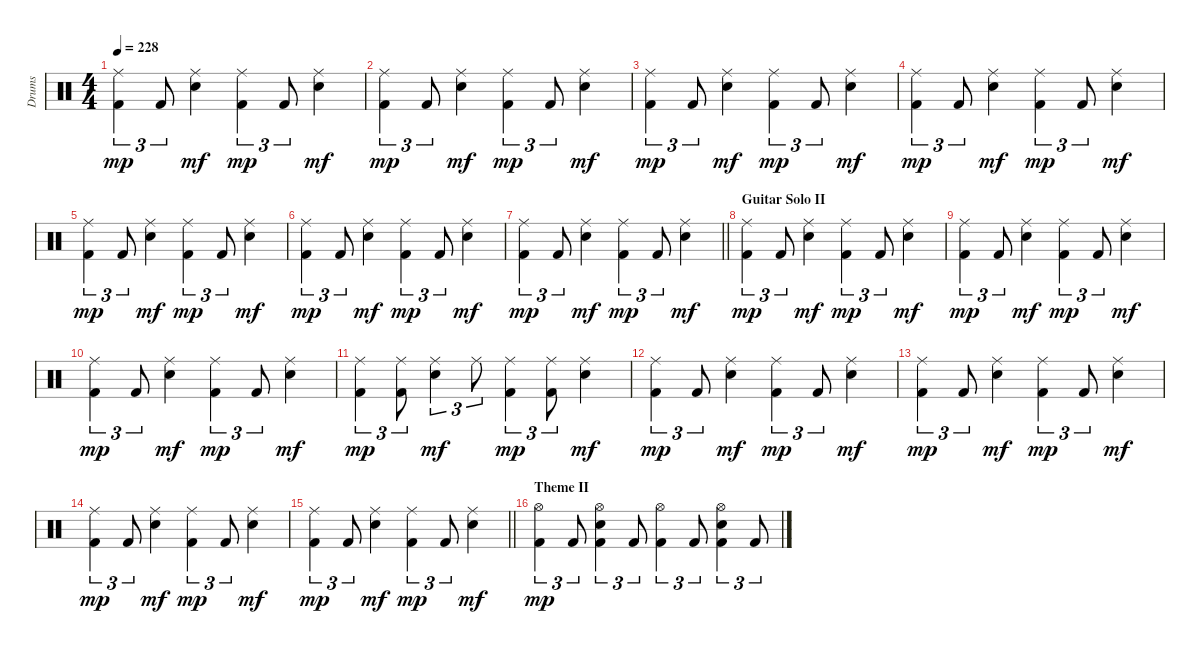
\track ("Drums" "Drums") {instrument percussion}
\staff {score}
\articulation defaults
\ts (4 4)
\tempo 228
\clef neutral
\ks c
("Ride (middle)" "Kick (hit) 2").4{tu (3 2) dy mp} "Kick (hit) 2".8{tu (3 2)} ("Ride (middle)" "Electric Snare (hit)").4{dy mf} ("Ride (middle)" "Kick (hit) 2").4{tu (3 2) dy mp} "Kick (hit) 2".8{tu (3 2)} ("Ride (middle)" "Electric Snare (hit)").4{dy mf} |
("Ride (middle)" "Kick (hit) 2").4{tu (3 2) dy mp} "Kick (hit) 2".8{tu (3 2)} ("Ride (middle)" "Electric Snare (hit)").4{dy mf} ("Ride (middle)" "Kick (hit) 2").4{tu (3 2) dy mp} "Kick (hit) 2".8{tu (3 2)} ("Ride (middle)" "Electric Snare (hit)").4{dy mf} |
("Ride (middle)" "Kick (hit) 2").4{tu (3 2) dy mp} "Kick (hit) 2".8{tu (3 2)} ("Ride (middle)" "Electric Snare (hit)").4{dy mf} ("Ride (middle)" "Kick (hit) 2").4{tu (3 2) dy mp} "Kick (hit) 2".8{tu (3 2)} ("Ride (middle)" "Electric Snare (hit)").4{dy mf} |
("Ride (middle)" "Kick (hit) 2").4{tu (3 2) dy mp} "Kick (hit) 2".8{tu (3 2)} ("Ride (middle)" "Electric Snare (hit)").4{dy mf} ("Ride (middle)" "Kick (hit) 2").4{tu (3 2) dy mp} "Kick (hit) 2".8{tu (3 2)} ("Ride (middle)" "Electric Snare (hit)").4{dy mf} |
("Ride (middle)" "Kick (hit) 2").4{tu (3 2) dy mp} "Kick (hit) 2".8{tu (3 2)} ("Ride (middle)" "Electric Snare (hit)").4{dy mf} ("Ride (middle)" "Kick (hit) 2").4{tu (3 2) dy mp} "Kick (hit) 2".8{tu (3 2)} ("Ride (middle)" "Electric Snare (hit)").4{dy mf} |
("Ride (middle)" "Kick (hit) 2").4{tu (3 2) dy mp} "Kick (hit) 2".8{tu (3 2)} ("Ride (middle)" "Electric Snare (hit)").4{dy mf} ("Ride (middle)" "Kick (hit) 2").4{tu (3 2) dy mp} "Kick (hit) 2".8{tu (3 2)} ("Ride (middle)" "Electric Snare (hit)").4{dy mf} |
\barLineRight lightlight
("Ride (middle)" "Kick (hit) 2").4{tu (3 2) dy mp} "Kick (hit) 2".8{tu (3 2)} ("Ride (middle)" "Electric Snare (hit)").4{dy mf} ("Ride (middle)" "Kick (hit) 2").4{tu (3 2) dy mp} "Kick (hit) 2".8{tu (3 2)} ("Ride (middle)" "Electric Snare (hit)").4{dy mf} |
\section ("" "Guitar Solo II")
("Ride (middle)" "Kick (hit) 2").4{tu (3 2) dy mp} "Kick (hit) 2".8{tu (3 2)} ("Ride (middle)" "Electric Snare (hit)").4{dy mf} ("Ride (middle)" "Kick (hit) 2").4{tu (3 2) dy mp} "Kick (hit) 2".8{tu (3 2)} ("Ride (middle)" "Electric Snare (hit)").4{dy mf} |
("Ride (middle)" "Kick (hit) 2").4{tu (3 2) dy mp} "Kick (hit) 2".8{tu (3 2)} ("Ride (middle)" "Electric Snare (hit)").4{dy mf} ("Ride (middle)" "Kick (hit) 2").4{tu (3 2) dy mp} "Kick (hit) 2".8{tu (3 2)} ("Ride (middle)" "Electric Snare (hit)").4{dy mf} |
("Ride (middle)" "Kick (hit) 2").4{tu (3 2) dy mp} "Kick (hit) 2".8{tu (3 2)} ("Ride (middle)" "Electric Snare (hit)").4{dy mf} ("Ride (middle)" "Kick (hit) 2").4{tu (3 2) dy mp} "Kick (hit) 2".8{tu (3 2)} ("Ride (middle)" "Electric Snare (hit)").4{dy mf} |
("Ride (middle)" "Kick (hit) 2").4{tu (3 2) dy mp} ("Ride (middle)" "Kick (hit) 2").8{tu (3 2)} ("Ride (middle)" "Electric Snare (hit)").4{tu (3 2) dy mf} "Ride (middle)".8{tu (3 2)} ("Ride (middle)" "Kick (hit) 2").4{tu (3 2) dy mp} ("Ride (middle)" "Kick (hit) 2").8{tu (3 2)} ("Ride (middle)" "Electric Snare (hit)").4{dy mf} |
("Ride (middle)" "Kick (hit) 2").4{tu (3 2) dy mp} "Kick (hit) 2".8{tu (3 2)} ("Ride (middle)" "Electric Snare (hit)").4{dy mf} ("Ride (middle)" "Kick (hit) 2").4{tu (3 2) dy mp} "Kick (hit) 2".8{tu (3 2)} ("Ride (middle)" "Electric Snare (hit)").4{dy mf} |
("Ride (middle)" "Kick (hit) 2").4{tu (3 2) dy mp} "Kick (hit) 2".8{tu (3 2)} ("Ride (middle)" "Electric Snare (hit)").4{dy mf} ("Ride (middle)" "Kick (hit) 2").4{tu (3 2) dy mp} "Kick (hit) 2".8{tu (3 2)} ("Ride (middle)" "Electric Snare (hit)").4{dy mf} |
("Ride (middle)" "Kick (hit) 2").4{tu (3 2) dy mp} "Kick (hit) 2".8{tu (3 2)} ("Ride (middle)" "Electric Snare (hit)").4{dy mf} ("Ride (middle)" "Kick (hit) 2").4{tu (3 2) dy mp} "Kick (hit) 2".8{tu (3 2)} ("Ride (middle)" "Electric Snare (hit)").4{dy mf} |
\barLineRight lightlight
("Ride (middle)" "Kick (hit) 2").4{tu (3 2) dy mp} "Kick (hit) 2".8{tu (3 2)} ("Ride (middle)" "Electric Snare (hit)").4{dy mf} ("Ride (middle)" "Kick (hit) 2").4{tu (3 2) dy mp} "Kick (hit) 2".8{tu (3 2)} ("Ride (middle)" "Electric Snare (hit)").4{dy mf} |
\section ("" "Theme II")
("Hi-Hat (open)" "Kick (hit) 2").4{tu (3 2) dy mp} "Kick (hit) 2".8{tu (3 2)} ("Hi-Hat (open)" "Electric Snare (hit)" "Kick (hit) 2").4{tu (3 2)} "Kick (hit) 2".8{tu (3 2)} ("Hi-Hat (open)" "Kick (hit) 2").4{tu (3 2)} "Kick (hit) 2".8{tu (3 2)} ("Hi-Hat (open)" "Electric Snare (hit)" "Kick (hit) 2").4{tu (3 2)} "Kick (hit) 2".8{tu (3 2)}
